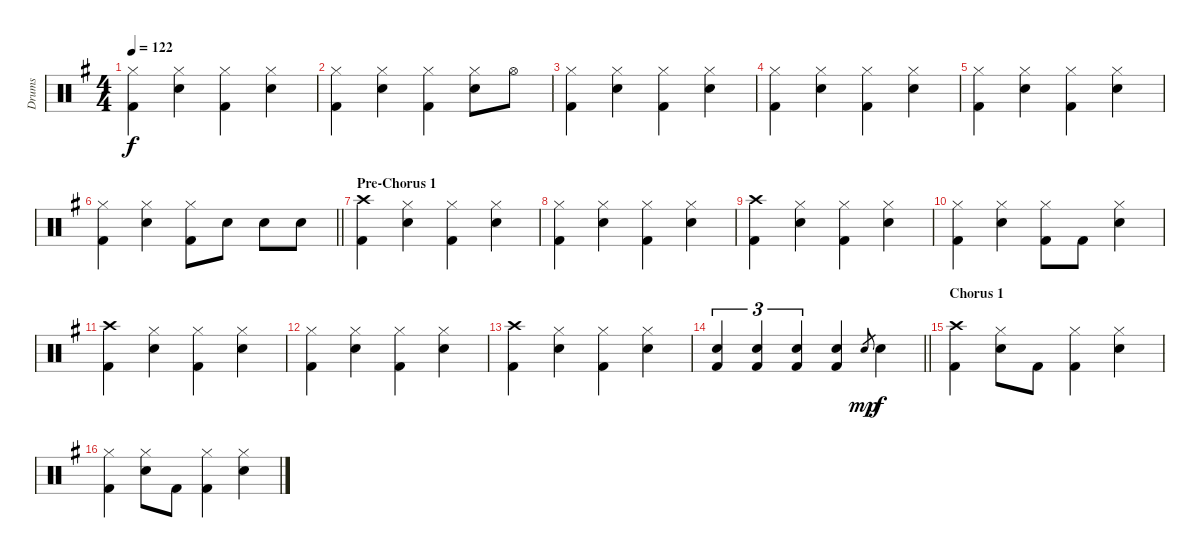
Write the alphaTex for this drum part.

\track ("Drums" "Drums") {instrument percussion}
\staff {score}
\articulation defaults
\ts (4 4)
\tempo 122
\clef neutral
\ks eminor
("Hi-Hat (closed)" "Kick (hit) 2").4{dy f} ("Hi-Hat (closed)" "Electric Snare (hit)").4 ("Hi-Hat (closed)" "Kick (hit) 2").4 ("Hi-Hat (closed)" "Electric Snare (hit)").4 |
("Hi-Hat (closed)" "Kick (hit) 2").4 ("Hi-Hat (closed)" "Electric Snare (hit)").4 ("Hi-Hat (closed)" "Kick (hit) 2").4 ("Hi-Hat (closed)" "Electric Snare (hit)").8 "Hi-Hat (open)".8 |
("Hi-Hat (closed)" "Kick (hit) 2").4 ("Hi-Hat (closed)" "Electric Snare (hit)").4 ("Hi-Hat (closed)" "Kick (hit) 2").4 ("Hi-Hat (closed)" "Electric Snare (hit)").4 |
("Hi-Hat (closed)" "Kick (hit) 2").4 ("Hi-Hat (closed)" "Electric Snare (hit)").4 ("Hi-Hat (closed)" "Kick (hit) 2").4 ("Hi-Hat (closed)" "Electric Snare (hit)").4 |
("Hi-Hat (closed)" "Kick (hit) 2").4 ("Hi-Hat (closed)" "Electric Snare (hit)").4 ("Hi-Hat (closed)" "Kick (hit) 2").4 ("Hi-Hat (closed)" "Electric Snare (hit)").4 |
\barLineRight lightlight
("Hi-Hat (closed)" "Kick (hit) 2").4 ("Hi-Hat (closed)" "Electric Snare (hit)").4 ("Hi-Hat (closed)" "Kick (hit) 2").8 "Electric Snare (hit)".8 "Electric Snare (hit)".8 "Electric Snare (hit)".8 |
\section ("" "Pre-Chorus 1")
("Crash high (hit)" "Kick (hit) 2").4 ("Hi-Hat (closed)" "Electric Snare (hit)").4 ("Hi-Hat (closed)" "Kick (hit) 2").4 ("Hi-Hat (closed)" "Electric Snare (hit)").4 |
("Hi-Hat (closed)" "Kick (hit) 2").4 ("Hi-Hat (closed)" "Electric Snare (hit)").4 ("Hi-Hat (closed)" "Kick (hit) 2").4 ("Hi-Hat (closed)" "Electric Snare (hit)").4 |
("Crash high (hit)" "Kick (hit) 2").4 ("Hi-Hat (closed)" "Electric Snare (hit)").4 ("Hi-Hat (closed)" "Kick (hit) 2").4 ("Hi-Hat (closed)" "Electric Snare (hit)").4 |
("Hi-Hat (closed)" "Kick (hit) 2").4 ("Hi-Hat (closed)" "Electric Snare (hit)").4 ("Hi-Hat (closed)" "Kick (hit) 2").8 "Kick (hit) 2".8 ("Hi-Hat (closed)" "Electric Snare (hit)").4 |
("Crash high (hit)" "Kick (hit) 2").4 ("Hi-Hat (closed)" "Electric Snare (hit)").4 ("Hi-Hat (closed)" "Kick (hit) 2").4 ("Hi-Hat (closed)" "Electric Snare (hit)").4 |
("Hi-Hat (closed)" "Kick (hit) 2").4 ("Hi-Hat (closed)" "Electric Snare (hit)").4 ("Hi-Hat (closed)" "Kick (hit) 2").4 ("Hi-Hat (closed)" "Electric Snare (hit)").4 |
("Crash high (hit)" "Kick (hit) 2").4 ("Hi-Hat (closed)" "Electric Snare (hit)").4 ("Hi-Hat (closed)" "Kick (hit) 2").4 ("Hi-Hat (closed)" "Electric Snare (hit)").4 |
\barLineRight lightlight
("Electric Snare (hit)" "Kick (hit) 2").4{tu (3 2)} ("Electric Snare (hit)" "Kick (hit) 2").4{tu (3 2)} ("Electric Snare (hit)" "Kick (hit) 2").4{tu (3 2)} ("Electric Snare (hit)" "Kick (hit) 2").4 "Electric Snare (hit)".8{gr dy mp} "Electric Snare (hit)".4{dy f} |
\section ("" "Chorus 1")
("Crash high (hit)" "Kick (hit) 2").4 ("Hi-Hat (closed)" "Electric Snare (hit)").8 "Kick (hit) 2".8 ("Hi-Hat (closed)" "Kick (hit) 2").4 ("Hi-Hat (closed)" "Electric Snare (hit)").4 |
("Hi-Hat (closed)" "Kick (hit) 2").4 ("Hi-Hat (closed)" "Electric Snare (hit)").8 "Kick (hit) 2".8 ("Hi-Hat (closed)" "Kick (hit) 2").4 ("Hi-Hat (closed)" "Electric Snare (hit)").4
